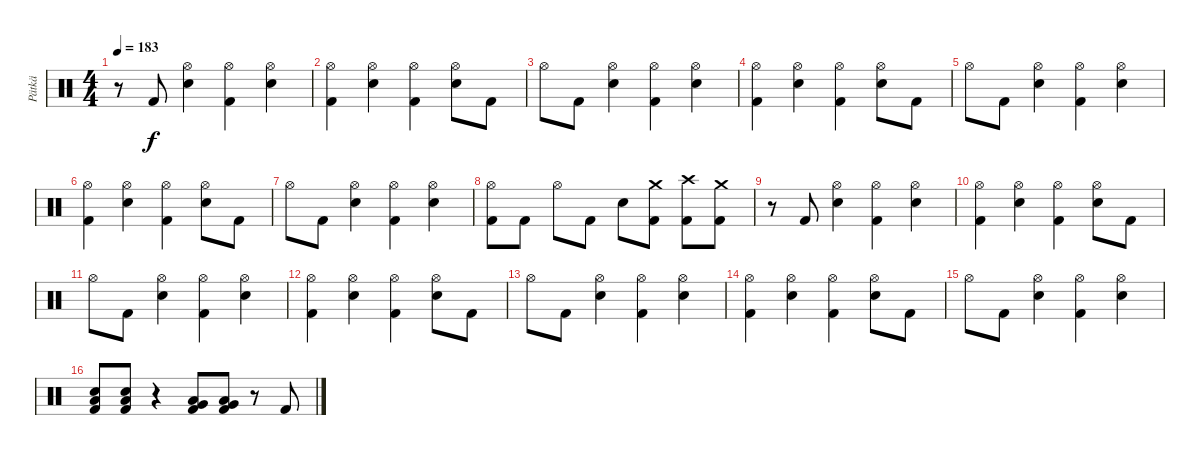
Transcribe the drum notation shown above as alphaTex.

\track ("Pätkä" "Pätkä") {instrument percussion}
\staff {score}
\articulation defaults
\ts (4 4)
\tempo 183
\clef neutral
\ks c
r.8{dy f} "Kick (hit) 2".8 ("Hi-Hat (open)" "Electric Snare (hit)").4 ("Hi-Hat (open)" "Kick (hit) 2").4 ("Hi-Hat (open)" "Electric Snare (hit)").4 |
("Hi-Hat (open)" "Kick (hit) 2").4 ("Hi-Hat (open)" "Electric Snare (hit)").4 ("Hi-Hat (open)" "Kick (hit) 2").4 ("Hi-Hat (open)" "Electric Snare (hit)").8 "Kick (hit) 2".8 |
"Hi-Hat (open)".8 "Kick (hit) 2".8 ("Hi-Hat (open)" "Electric Snare (hit)").4 ("Hi-Hat (open)" "Kick (hit) 2").4 ("Hi-Hat (open)" "Electric Snare (hit)").4 |
("Hi-Hat (open)" "Kick (hit) 2").4 ("Hi-Hat (open)" "Electric Snare (hit)").4 ("Hi-Hat (open)" "Kick (hit) 2").4 ("Hi-Hat (open)" "Electric Snare (hit)").8 "Kick (hit) 2".8 |
"Hi-Hat (open)".8 "Kick (hit) 2".8 ("Hi-Hat (open)" "Electric Snare (hit)").4 ("Hi-Hat (open)" "Kick (hit) 2").4 ("Hi-Hat (open)" "Electric Snare (hit)").4 |
("Hi-Hat (open)" "Kick (hit) 2").4 ("Hi-Hat (open)" "Electric Snare (hit)").4 ("Hi-Hat (open)" "Kick (hit) 2").4 ("Hi-Hat (open)" "Electric Snare (hit)").8 "Kick (hit) 2".8 |
"Hi-Hat (open)".8 "Kick (hit) 2".8 ("Hi-Hat (open)" "Electric Snare (hit)").4 ("Hi-Hat (open)" "Kick (hit) 2").4 ("Hi-Hat (open)" "Electric Snare (hit)").4 |
("Hi-Hat (open)" "Kick (hit) 2").8 "Kick (hit) 2".8 "Hi-Hat (open)".8 "Kick (hit) 2".8 "Electric Snare (hit)".8 ("Crash medium (hit)" "Kick (hit) 2").8 ("Crash high (hit)" "Kick (hit) 2").8 ("Crash medium (hit)" "Kick (hit) 2").8 |
r.8 "Kick (hit) 2".8 ("Hi-Hat (open)" "Electric Snare (hit)").4 ("Hi-Hat (open)" "Kick (hit) 2").4 ("Hi-Hat (open)" "Electric Snare (hit)").4 |
("Hi-Hat (open)" "Kick (hit) 2").4 ("Hi-Hat (open)" "Electric Snare (hit)").4 ("Hi-Hat (open)" "Kick (hit) 2").4 ("Hi-Hat (open)" "Electric Snare (hit)").8 "Kick (hit) 2".8 |
"Hi-Hat (open)".8 "Kick (hit) 2".8 ("Hi-Hat (open)" "Electric Snare (hit)").4 ("Hi-Hat (open)" "Kick (hit) 2").4 ("Hi-Hat (open)" "Electric Snare (hit)").4 |
("Hi-Hat (open)" "Kick (hit) 2").4 ("Hi-Hat (open)" "Electric Snare (hit)").4 ("Hi-Hat (open)" "Kick (hit) 2").4 ("Hi-Hat (open)" "Electric Snare (hit)").8 "Kick (hit) 2".8 |
"Hi-Hat (open)".8 "Kick (hit) 2".8 ("Hi-Hat (open)" "Electric Snare (hit)").4 ("Hi-Hat (open)" "Kick (hit) 2").4 ("Hi-Hat (open)" "Electric Snare (hit)").4 |
("Hi-Hat (open)" "Kick (hit) 2").4 ("Hi-Hat (open)" "Electric Snare (hit)").4 ("Hi-Hat (open)" "Kick (hit) 2").4 ("Hi-Hat (open)" "Electric Snare (hit)").8 "Kick (hit) 2".8 |
"Hi-Hat (open)".8 "Kick (hit) 2".8 ("Hi-Hat (open)" "Electric Snare (hit)").4 ("Hi-Hat (open)" "Kick (hit) 2").4 ("Hi-Hat (open)" "Electric Snare (hit)").4 |
("Low Floor Tom (hit)" "Electric Snare (hit)" "Kick (hit) 2").8 ("Low Floor Tom (hit)" "Electric Snare (hit)" "Kick (hit) 2").8 r.4 ("Low Tom (hit)" "Very Low Tom (hit)" "Kick (hit) 2").8 ("Low Tom (hit)" "Very Low Tom (hit)" "Kick (hit) 2").8 r.8 "Kick (hit) 2".8
